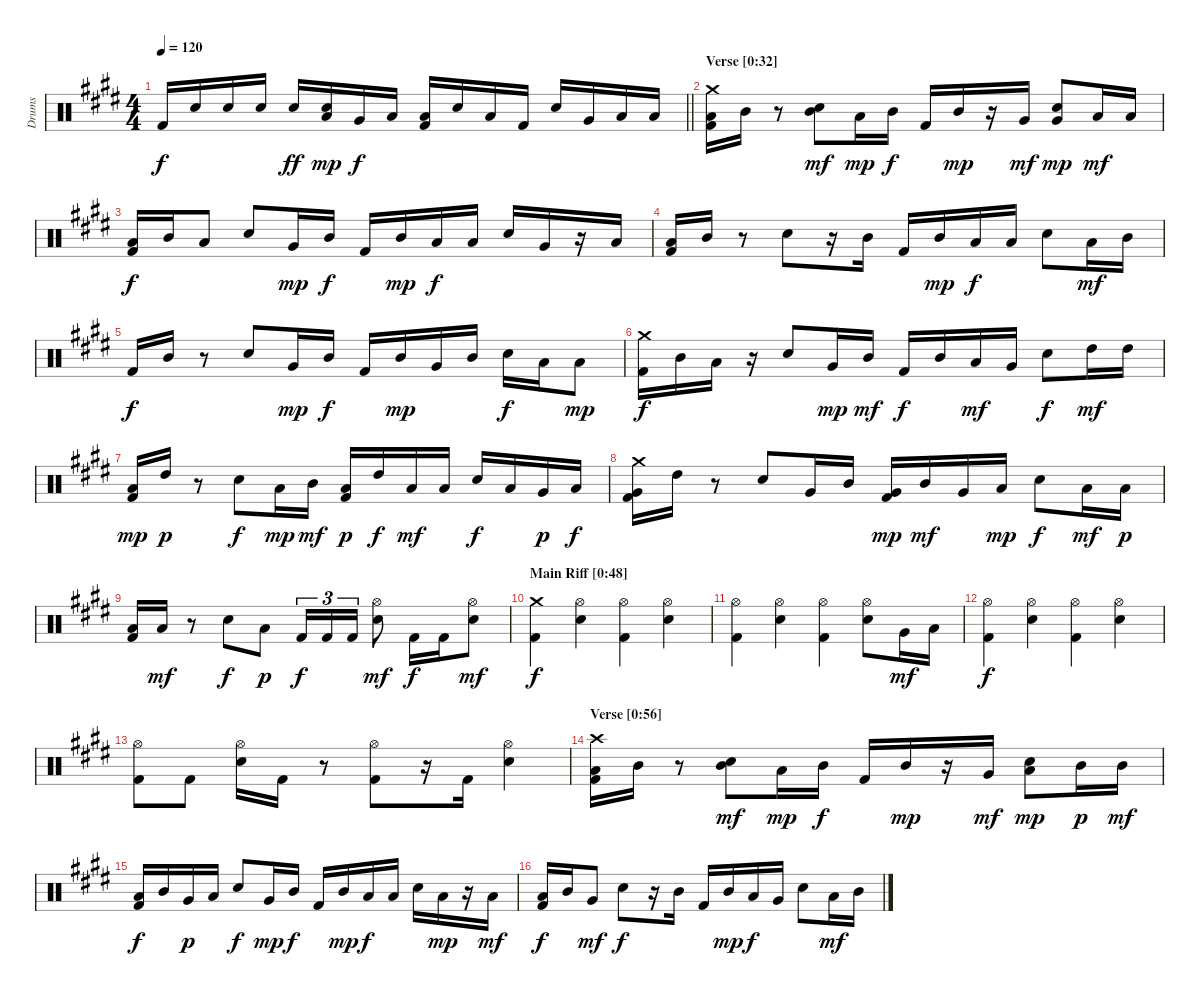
\track ("Drums" "Drums") {instrument percussion}
\staff {score}
\articulation defaults
\ts (4 4)
\tempo 120
\clef neutral
\barLineRight lightlight
\ks c#minor "Kick (hit) 2".16{dy f} "Snare (hit) 2".16 "Snare (hit) 2".16 "Snare (hit) 2".16 "Snare (hit) 2".16{dy ff}
("Low Tom (hit)" "Snare (hit) 2").16{dy mp} "Very Low Tom (hit)".16{dy f} "Low Floor Tom (hit)".16 ("Low Floor Tom (hit)" "Kick (hit) 2").16 "Snare (hit) 2".16 "Low Floor Tom (hit)".16 "Kick (hit) 2".16 "Snare (hit) 2".16 "Very Low Tom (hit)".16 "Low Floor Tom (hit)".16 "Low Floor Tom (hit)".16 |
\section ("" "Verse [0:32]")
("Crash medium (hit)" "Low Floor Tom (hit)" "Kick (hit) 2").16 "Mid Tom (hit)".16 r.8 ("Mid Tom (hit)" "Snare (hit) 2").8{dy mf} "Low Floor Tom (hit)".16{dy mp} "Mid Tom (hit)".16{dy f} "Kick (hit) 2".16 "Mid Tom (hit)".16{dy mp} r.16 "Very Low Tom (hit)".16{dy mf} ("Very Low Tom (hit)" "Snare (hit) 2").8{dy mp} "Low Floor Tom (hit)".16{dy mf} "Low Floor Tom (hit)".16 |
("Low Floor Tom (hit)" "Kick (hit) 2").16{dy f} "Mid Tom (hit)".16 "Low Floor Tom (hit)".8 "Snare (hit) 2".8 "Very Low Tom (hit)".16{dy mp} "Mid Tom (hit)".16{dy f} "Kick (hit) 2".16 "Mid Tom (hit)".16{dy mp} "Low Tom (hit)".16{dy f} "Low Floor Tom (hit)".16 "Snare (hit) 2".16 "Very Low Tom (hit)".16 r.16 "Low Floor Tom (hit)".16 |
("Low Floor Tom (hit)" "Kick (hit) 2").16 "Mid Tom (hit)".16 r.8 "Snare (hit) 2".8 r.16 "Mid Tom (hit)".16 "Kick (hit) 2".16 "Mid Tom (hit)".16{dy mp} "Low Tom (hit)".16{dy f} "Low Floor Tom (hit)".16 "Snare (hit) 2".8 "Low Floor Tom (hit)".16{dy mf} "Mid Tom (hit)".16 |
"Kick (hit) 2".16{dy f} "Mid Tom (hit)".16 r.8 "Snare (hit) 2".8 "Very Low Tom (hit)".16{dy mp} "Mid Tom (hit)".16{dy f} "Kick (hit) 2".16 "Mid Tom (hit)".16{dy mp} "Very Low Tom (hit)".16 "Mid Tom (hit)".16 "Snare (hit) 2".16{dy f} "Low Floor Tom (hit)".16 "Low Tom (hit)".8{dy mp} |
("Crash medium (hit)" "Kick (hit) 2").16{dy f} "Mid Tom (hit)".16 "Low Tom (hit)".16 r.16 "Snare (hit) 2".8 "Very Low Tom (hit)".16{dy mp} "Mid Tom (hit)".16{dy mf} "Kick (hit) 2".16{dy f} "Mid Tom (hit)".16 "Low Tom (hit)".16{dy mf} "Very Low Tom (hit)".16 "Snare (hit) 2".8{dy f} "High Tom (hit)".16{dy mf} "High Tom (hit)".16 |
("Low Tom (hit)" "Kick (hit) 2").16{dy mp} "High Tom (hit)".16{dy p} r.8 "Snare (hit) 2".8{dy f} "Low Tom (hit)".16{dy mp} "Mid Tom (hit)".16{dy mf} ("Low Tom (hit)" "Kick (hit) 2").16{dy p} "High Tom (hit)".16{dy f} "Low Tom (hit)".16{dy mf} "Low Floor Tom (hit)".16 "Snare (hit) 2".16{dy f} "Low Floor Tom (hit)".16 "Very Low Tom (hit)".16{dy p} "Low Floor Tom (hit)".16{dy f} |
("Crash medium (hit)" "Very Low Tom (hit)" "Kick (hit) 2").16 "High Tom (hit)".16 r.8 "Snare (hit) 2".8 "Very Low Tom (hit)".16 "Mid Tom (hit)".16 ("Very Low Tom (hit)" "Kick (hit) 2").16{dy mp} "Mid Tom (hit)".16{dy mf} "Very Low Tom (hit)".16 "Low Floor Tom (hit)".16{dy mp} "Snare (hit) 2".8{dy f} "Low Floor Tom (hit)".16{dy mf} "Low Tom (hit)".16{dy p} |
("Low Floor Tom (hit)" "Kick (hit) 2").16 "Low Floor Tom (hit)".16{dy mf} r.8 "Snare (hit) 2".8{dy f} "Low Floor Tom (hit)".8{dy p} "Kick (hit) 2".16{tu (3 2) dy f} "Kick (hit) 2".16{tu (3 2)} "Kick (hit) 2".16{tu (3 2)} ("Hi-Hat (open)" "Snare (hit) 2").8{dy mf} "Kick (hit) 2".16{dy f} "Kick (hit) 2".16 ("Hi-Hat (open)" "Snare (hit) 2").8{dy mf} |
\section ("" "Main Riff [0:48]")
("Crash medium (hit)" "Kick (hit) 2").4{dy f} ("Hi-Hat (open)" "Snare (hit) 2").4 ("Hi-Hat (open)" "Kick (hit) 2").4 ("Hi-Hat (open)" "Snare (hit) 2").4 |
("Hi-Hat (open)" "Kick (hit) 2").4 ("Hi-Hat (open)" "Snare (hit) 2").4 ("Hi-Hat (open)" "Kick (hit) 2").4 ("Hi-Hat (open)" "Snare (hit) 2").8 "Very Low Tom (hit)".16{dy mf} "Low Floor Tom (hit)".16 |
("Hi-Hat (open)" "Kick (hit) 2").4{dy f} ("Hi-Hat (open)" "Snare (hit) 2").4 ("Hi-Hat (open)" "Kick (hit) 2").4 ("Hi-Hat (open)" "Snare (hit) 2").4 |
("Hi-Hat (open)" "Kick (hit) 2").8 "Kick (hit) 2".8 ("Hi-Hat (open)" "Snare (hit) 2").16 "Kick (hit) 2".16 r.8 ("Hi-Hat (open)" "Kick (hit) 2").8 r.16 "Kick (hit) 2".16 ("Hi-Hat (open)" "Snare (hit) 2").4 |
\section ("" "Verse [0:56]")
("Crash high (hit)" "Low Floor Tom (hit)" "Kick (hit) 2").16 "Mid Tom (hit)".16 r.8 ("Mid Tom (hit)" "Snare (hit) 2").8{dy mf} "Low Floor Tom (hit)".16{dy mp} "Mid Tom (hit)".16{dy f} "Kick (hit) 2".16 "Mid Tom (hit)".16{dy mp} r.16 "Very Low Tom (hit)".16{dy mf} ("Low Floor Tom (hit)" "Snare (hit) 2").8{dy mp} "Mid Tom (hit)".16{dy p} "Mid Tom (hit)".16{dy mf} |
("Low Floor Tom (hit)" "Kick (hit) 2").16{dy f} "Mid Tom (hit)".16 "Very Low Tom (hit)".16{dy p} "Low Floor Tom (hit)".16 "Snare (hit) 2".8{dy f} "Very Low Tom (hit)".16{dy mp} "Mid Tom (hit)".16{dy f} "Kick (hit) 2".16 "Mid Tom (hit)".16{dy mp} "Low Tom (hit)".16{dy f} "Low Floor Tom (hit)".16 "Snare (hit) 2".16 "Low Floor Tom (hit)".16{dy mp} r.16 "Low Floor Tom (hit)".16{dy mf} |
("Low Floor Tom (hit)" "Kick (hit) 2").16{dy f} "Mid Tom (hit)".16 "Very Low Tom (hit)".8{dy mf} "Snare (hit) 2".8{dy f} r.16 "Mid Tom (hit)".16 "Kick (hit) 2".16 "Mid Tom (hit)".16{dy mp} "Low Tom (hit)".16{dy f} "Very Low Tom (hit)".16 "Snare (hit) 2".8 "Low Tom (hit)".16{dy mf} "Mid Tom (hit)".16
